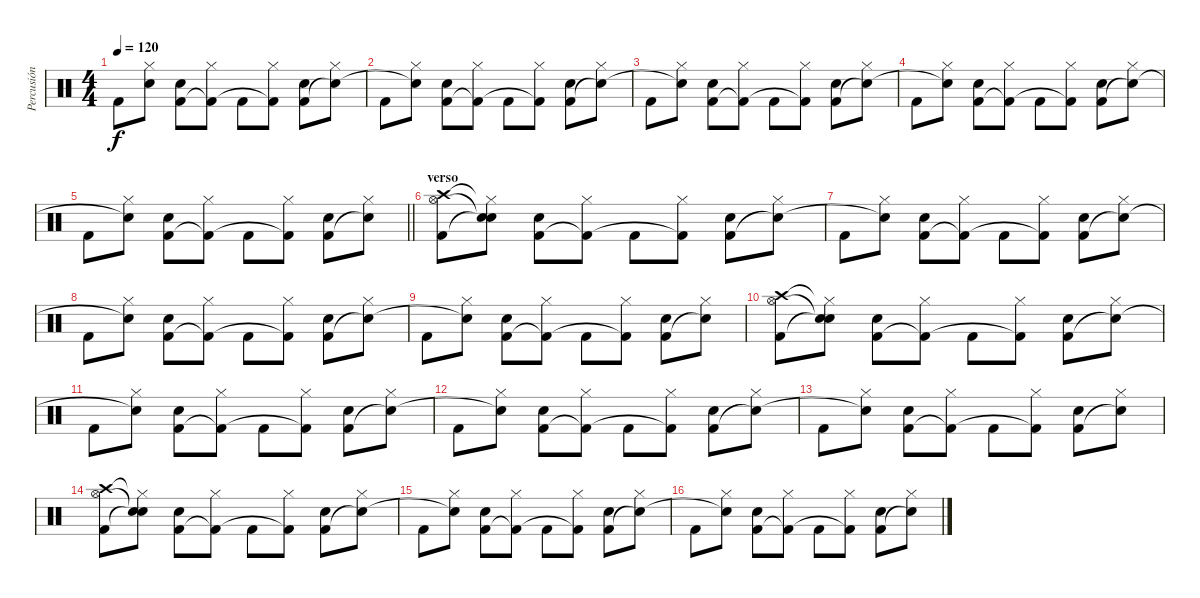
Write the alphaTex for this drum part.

\track ("Percusión" "Percusión") {instrument percussion}
\staff {score}
\articulation defaults
\ts (4 4)
\tempo 120
\clef neutral
\ks c "Kick (hit) 2".8{dy f}
("Hi-Hat (closed)" "Snare (hit)"{t}).8 ("Electric Snare (hit)" "Kick (hit) 2").8 ("Hi-Hat (closed)" "Kick (hit) 2"{t}).8 "Kick (hit) 2".8 ("Hi-Hat (closed)" "Kick (hit) 2"{t}).8 ("Electric Snare (hit)" "Kick (hit) 2").8 ("Hi-Hat (closed)" "Snare (hit)"{t}).8 |
"Kick (hit) 2".8 ("Hi-Hat (closed)" "Snare (hit)"{t}).8 ("Electric Snare (hit)" "Kick (hit) 2").8 ("Hi-Hat (closed)" "Kick (hit) 2"{t}).8 "Kick (hit) 2".8 ("Hi-Hat (closed)" "Kick (hit) 2"{t}).8 ("Electric Snare (hit)" "Kick (hit) 2").8 ("Hi-Hat (closed)" "Snare (hit)"{t}).8 |
"Kick (hit) 2".8 ("Hi-Hat (closed)" "Snare (hit)"{t}).8 ("Electric Snare (hit)" "Kick (hit) 2").8 ("Hi-Hat (closed)" "Kick (hit) 2"{t}).8 "Kick (hit) 2".8 ("Hi-Hat (closed)" "Kick (hit) 2"{t}).8 ("Electric Snare (hit)" "Kick (hit) 2").8 ("Hi-Hat (closed)" "Snare (hit)"{t}).8 |
"Kick (hit) 2".8 ("Hi-Hat (closed)" "Snare (hit)"{t}).8 ("Electric Snare (hit)" "Kick (hit) 2").8 ("Hi-Hat (closed)" "Kick (hit) 2"{t}).8 "Kick (hit) 2".8 ("Hi-Hat (closed)" "Kick (hit) 2"{t}).8 ("Electric Snare (hit)" "Kick (hit) 2").8 ("Hi-Hat (closed)" "Snare (hit)"{t}).8 |
\barLineRight lightlight "Kick (hit) 2".8
("Hi-Hat (closed)" "Snare (hit)"{t}).8 ("Electric Snare (hit)" "Kick (hit) 2").8 ("Hi-Hat (closed)" "Kick (hit) 2"{t}).8 "Kick (hit) 2".8 ("Hi-Hat (closed)" "Kick (hit) 2"{t}).8 ("Electric Snare (hit)" "Kick (hit) 2").8 ("Hi-Hat (closed)" "Snare (hit)"{t}).8 |
\section ("" "verso")
("Crash high (hit)" "Kick (hit) 2" "Hi-Hat (open)").8 ("Hi-Hat (closed)"{t} "Snare (hit)"{t} "Snare (hit)"{t}).8 ("Electric Snare (hit)" "Kick (hit) 2").8 ("Hi-Hat (closed)" "Kick (hit) 2"{t}).8 "Kick (hit) 2".8 ("Hi-Hat (closed)" "Kick (hit) 2"{t}).8 ("Electric Snare (hit)" "Kick (hit) 2").8 ("Hi-Hat (closed)" "Snare (hit)"{t}).8 |
"Kick (hit) 2".8 ("Hi-Hat (closed)" "Snare (hit)"{t}).8 ("Electric Snare (hit)" "Kick (hit) 2").8 ("Hi-Hat (closed)" "Kick (hit) 2"{t}).8 "Kick (hit) 2".8 ("Hi-Hat (closed)" "Kick (hit) 2"{t}).8 ("Electric Snare (hit)" "Kick (hit) 2").8 ("Hi-Hat (closed)" "Snare (hit)"{t}).8 |
"Kick (hit) 2".8 ("Hi-Hat (closed)" "Snare (hit)"{t}).8 ("Electric Snare (hit)" "Kick (hit) 2").8 ("Hi-Hat (closed)" "Kick (hit) 2"{t}).8 "Kick (hit) 2".8 ("Hi-Hat (closed)" "Kick (hit) 2"{t}).8 ("Electric Snare (hit)" "Kick (hit) 2").8 ("Hi-Hat (closed)" "Snare (hit)"{t}).8 |
"Kick (hit) 2".8 ("Hi-Hat (closed)" "Snare (hit)"{t}).8 ("Electric Snare (hit)" "Kick (hit) 2").8 ("Hi-Hat (closed)" "Kick (hit) 2"{t}).8 "Kick (hit) 2".8 ("Hi-Hat (closed)" "Kick (hit) 2"{t}).8 ("Electric Snare (hit)" "Kick (hit) 2").8 ("Hi-Hat (closed)" "Snare (hit)"{t}).8 |
("Crash high (hit)" "Kick (hit) 2" "Hi-Hat (open)").8 ("Hi-Hat (closed)"{t} "Snare (hit)"{t} "Snare (hit)"{t}).8 ("Electric Snare (hit)" "Kick (hit) 2").8 ("Hi-Hat (closed)" "Kick (hit) 2"{t}).8 "Kick (hit) 2".8 ("Hi-Hat (closed)" "Kick (hit) 2"{t}).8 ("Electric Snare (hit)" "Kick (hit) 2").8 ("Hi-Hat (closed)" "Snare (hit)"{t}).8 |
"Kick (hit) 2".8 ("Hi-Hat (closed)" "Snare (hit)"{t}).8 ("Electric Snare (hit)" "Kick (hit) 2").8 ("Hi-Hat (closed)" "Kick (hit) 2"{t}).8 "Kick (hit) 2".8 ("Hi-Hat (closed)" "Kick (hit) 2"{t}).8 ("Electric Snare (hit)" "Kick (hit) 2").8 ("Hi-Hat (closed)" "Snare (hit)"{t}).8 |
"Kick (hit) 2".8 ("Hi-Hat (closed)" "Snare (hit)"{t}).8 ("Electric Snare (hit)" "Kick (hit) 2").8 ("Hi-Hat (closed)" "Kick (hit) 2"{t}).8 "Kick (hit) 2".8 ("Hi-Hat (closed)" "Kick (hit) 2"{t}).8 ("Electric Snare (hit)" "Kick (hit) 2").8 ("Hi-Hat (closed)" "Snare (hit)"{t}).8 |
"Kick (hit) 2".8 ("Hi-Hat (closed)" "Snare (hit)"{t}).8 ("Electric Snare (hit)" "Kick (hit) 2").8 ("Hi-Hat (closed)" "Kick (hit) 2"{t}).8 "Kick (hit) 2".8 ("Hi-Hat (closed)" "Kick (hit) 2"{t}).8 ("Electric Snare (hit)" "Kick (hit) 2").8 ("Hi-Hat (closed)" "Snare (hit)"{t}).8 |
("Crash high (hit)" "Kick (hit) 2" "Hi-Hat (open)").8 ("Hi-Hat (closed)"{t} "Snare (hit)"{t} "Snare (hit)"{t}).8 ("Electric Snare (hit)" "Kick (hit) 2").8 ("Hi-Hat (closed)" "Kick (hit) 2"{t}).8 "Kick (hit) 2".8 ("Hi-Hat (closed)" "Kick (hit) 2"{t}).8 ("Electric Snare (hit)" "Kick (hit) 2").8 ("Hi-Hat (closed)" "Snare (hit)"{t}).8 |
"Kick (hit) 2".8 ("Hi-Hat (closed)" "Snare (hit)"{t}).8 ("Electric Snare (hit)" "Kick (hit) 2").8 ("Hi-Hat (closed)" "Kick (hit) 2"{t}).8 "Kick (hit) 2".8 ("Hi-Hat (closed)" "Kick (hit) 2"{t}).8 ("Electric Snare (hit)" "Kick (hit) 2").8 ("Hi-Hat (closed)" "Snare (hit)"{t}).8 |
"Kick (hit) 2".8 ("Hi-Hat (closed)" "Snare (hit)"{t}).8 ("Electric Snare (hit)" "Kick (hit) 2").8 ("Hi-Hat (closed)" "Kick (hit) 2"{t}).8 "Kick (hit) 2".8 ("Hi-Hat (closed)" "Kick (hit) 2"{t}).8 ("Electric Snare (hit)" "Kick (hit) 2").8 ("Hi-Hat (closed)" "Snare (hit)"{t}).8
